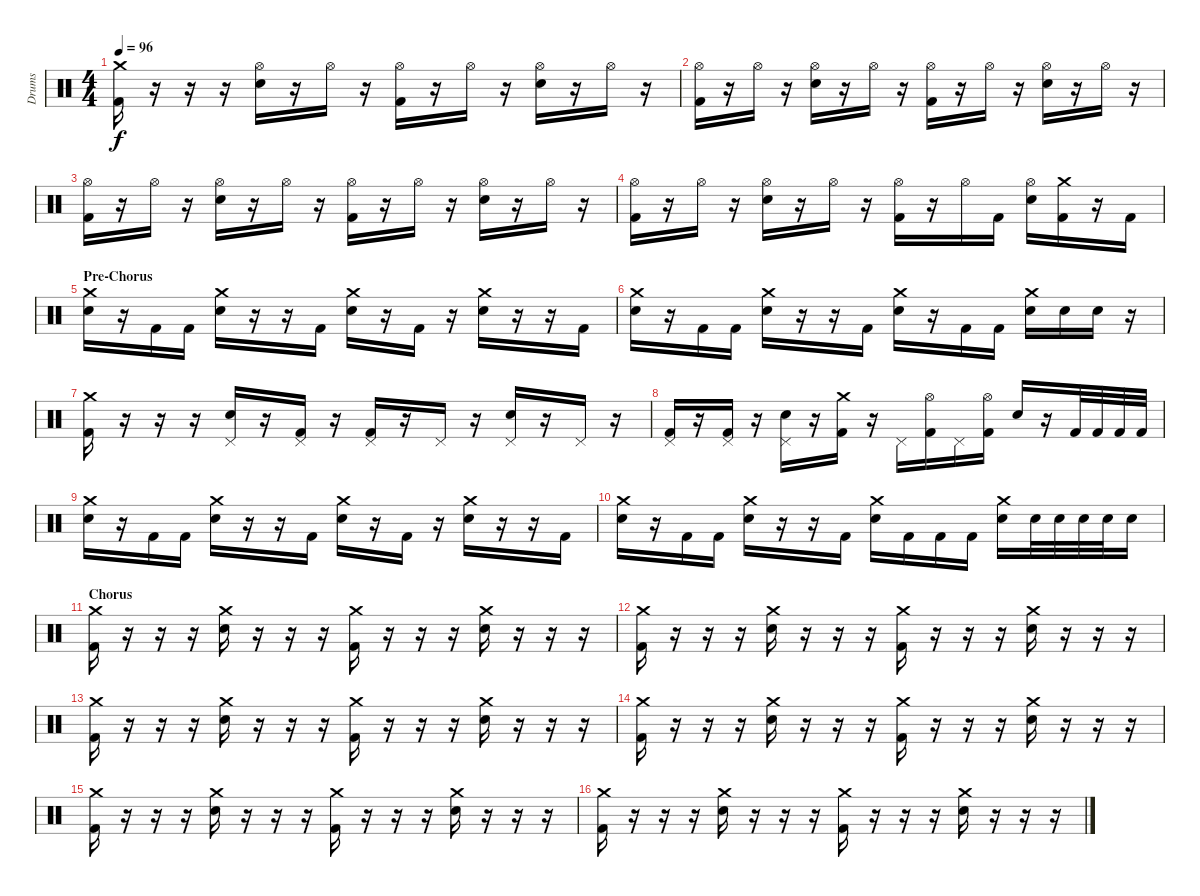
\track ("Drums" "Drums") {instrument percussion}
\staff {score}
\articulation defaults
\ts (4 4)
\tempo 96
\clef neutral
\ks c
("Crash medium (hit)" "Kick (hit) 2").16{dy f} r.16 r.16 r.16 ("Hi-Hat (open)" "Electric Snare (hit)").16 r.16 "Hi-Hat (open)".16 r.16 ("Hi-Hat (open)" "Kick (hit) 2").16 r.16 "Hi-Hat (open)".16 r.16 ("Hi-Hat (open)" "Electric Snare (hit)").16 r.16 "Hi-Hat (open)".16 r.16 |
("Hi-Hat (open)" "Kick (hit) 2").16 r.16 "Hi-Hat (open)".16 r.16 ("Hi-Hat (open)" "Electric Snare (hit)").16 r.16 "Hi-Hat (open)".16 r.16 ("Hi-Hat (open)" "Kick (hit) 2").16 r.16 "Hi-Hat (open)".16 r.16 ("Hi-Hat (open)" "Electric Snare (hit)").16 r.16 "Hi-Hat (open)".16 r.16 |
("Hi-Hat (open)" "Kick (hit) 2").16 r.16 "Hi-Hat (open)".16 r.16 ("Hi-Hat (open)" "Electric Snare (hit)").16 r.16 "Hi-Hat (open)".16 r.16 ("Hi-Hat (open)" "Kick (hit) 2").16 r.16 "Hi-Hat (open)".16 r.16 ("Hi-Hat (open)" "Electric Snare (hit)").16 r.16 "Hi-Hat (open)".16 r.16 |
("Hi-Hat (open)" "Kick (hit) 2").16 r.16 "Hi-Hat (open)".16 r.16 ("Hi-Hat (open)" "Electric Snare (hit)").16 r.16 "Hi-Hat (open)".16 r.16 ("Hi-Hat (open)" "Kick (hit) 2").16 r.16 "Hi-Hat (open)".16 "Kick (hit) 2".16 ("Hi-Hat (open)" "Electric Snare (hit)").16 ("Crash medium (hit)" "Kick (hit) 2").16 r.16 "Kick (hit) 2".16 |
\section ("" "Pre-Chorus")
("Crash medium (hit)" "Electric Snare (hit)").16 r.16 "Kick (hit) 2".16 "Kick (hit) 2".16 ("Crash medium (hit)" "Electric Snare (hit)").16 r.16 r.16 "Kick (hit) 2".16 ("Crash medium (hit)" "Electric Snare (hit)").16 r.16 "Kick (hit) 2".16 r.16 ("Crash medium (hit)" "Electric Snare (hit)").16 r.16 r.16 "Kick (hit) 2".16 |
("Crash medium (hit)" "Electric Snare (hit)").16 r.16 "Kick (hit) 2".16 "Kick (hit) 2".16 ("Crash medium (hit)" "Electric Snare (hit)").16 r.16 r.16 "Kick (hit) 2".16 ("Crash medium (hit)" "Electric Snare (hit)").16 r.16 "Kick (hit) 2".16 "Kick (hit) 2".16 ("Crash medium (hit)" "Electric Snare (hit)").16 "Electric Snare (hit)".16 "Electric Snare (hit)".16 r.16 |
("Crash medium (hit)" "Kick (hit) 2").16 r.16 r.16 r.16 ("Pedal Hi-Hat (hit)" "Electric Snare (hit)").16 r.16 ("Pedal Hi-Hat (hit)" "Kick (hit) 2").16 r.16 ("Pedal Hi-Hat (hit)" "Kick (hit) 2").16 r.16 "Pedal Hi-Hat (hit)".16 r.16 ("Pedal Hi-Hat (hit)" "Electric Snare (hit)").16 r.16 "Pedal Hi-Hat (hit)".16 r.16 |
("Pedal Hi-Hat (hit)" "Kick (hit) 2").16 r.16 ("Pedal Hi-Hat (hit)" "Kick (hit) 2").16 r.16 ("Pedal Hi-Hat (hit)" "Electric Snare (hit)").16 r.16 ("Crash medium (hit)" "Kick (hit) 2").16 r.16 "Pedal Hi-Hat (hit)".16 ("Hi-Hat (open)" "Kick (hit) 2").16 "Pedal Hi-Hat (hit)".16 ("Hi-Hat (open)" "Kick (hit) 2").16 "Electric Snare (hit)".16 r.16 "Kick (hit) 2".32 "Kick (hit) 2".32 "Kick (hit) 2".32 "Kick (hit) 2".32 |
("Crash medium (hit)" "Electric Snare (hit)").16 r.16 "Kick (hit) 2".16 "Kick (hit) 2".16 ("Crash medium (hit)" "Electric Snare (hit)").16 r.16 r.16 "Kick (hit) 2".16 ("Crash medium (hit)" "Electric Snare (hit)").16 r.16 "Kick (hit) 2".16 r.16 ("Crash medium (hit)" "Electric Snare (hit)").16 r.16 r.16 "Kick (hit) 2".16 |
("Crash medium (hit)" "Electric Snare (hit)").16 r.16 "Kick (hit) 2".16 "Kick (hit) 2".16 ("Crash medium (hit)" "Electric Snare (hit)").16 r.16 r.16 "Kick (hit) 2".16 ("Crash medium (hit)" "Electric Snare (hit)").16 "Kick (hit) 2".16 "Kick (hit) 2".16 "Kick (hit) 2".16 ("Crash medium (hit)" "Electric Snare (hit)").16 "Electric Snare (hit)".32 "Electric Snare (hit)".32 "Electric Snare (hit)".32 "Electric Snare (hit)".32 "Electric Snare (hit)".16 |
\section ("" "Chorus")
("Crash medium (hit)" "Kick (hit) 2").16 r.16 r.16 r.16 ("Crash medium (hit)" "Electric Snare (hit)").16 r.16 r.16 r.16 ("Crash medium (hit)" "Kick (hit) 2").16 r.16 r.16 r.16 ("Crash medium (hit)" "Electric Snare (hit)").16 r.16 r.16 r.16 |
("Crash medium (hit)" "Kick (hit) 2").16 r.16 r.16 r.16 ("Crash medium (hit)" "Electric Snare (hit)").16 r.16 r.16 r.16 ("Crash medium (hit)" "Kick (hit) 2").16 r.16 r.16 r.16 ("Crash medium (hit)" "Electric Snare (hit)").16 r.16 r.16 r.16 |
("Crash medium (hit)" "Kick (hit) 2").16 r.16 r.16 r.16 ("Crash medium (hit)" "Electric Snare (hit)").16 r.16 r.16 r.16 ("Crash medium (hit)" "Kick (hit) 2").16 r.16 r.16 r.16 ("Crash medium (hit)" "Electric Snare (hit)").16 r.16 r.16 r.16 |
("Crash medium (hit)" "Kick (hit) 2").16 r.16 r.16 r.16 ("Crash medium (hit)" "Electric Snare (hit)").16 r.16 r.16 r.16 ("Crash medium (hit)" "Kick (hit) 2").16 r.16 r.16 r.16 ("Crash medium (hit)" "Electric Snare (hit)").16 r.16 r.16 r.16 |
("Crash medium (hit)" "Kick (hit) 2").16 r.16 r.16 r.16 ("Crash medium (hit)" "Electric Snare (hit)").16 r.16 r.16 r.16 ("Crash medium (hit)" "Kick (hit) 2").16 r.16 r.16 r.16 ("Crash medium (hit)" "Electric Snare (hit)").16 r.16 r.16 r.16 |
("Crash medium (hit)" "Kick (hit) 2").16 r.16 r.16 r.16 ("Crash medium (hit)" "Electric Snare (hit)").16 r.16 r.16 r.16 ("Crash medium (hit)" "Kick (hit) 2").16 r.16 r.16 r.16 ("Crash medium (hit)" "Electric Snare (hit)").16 r.16 r.16 r.16
